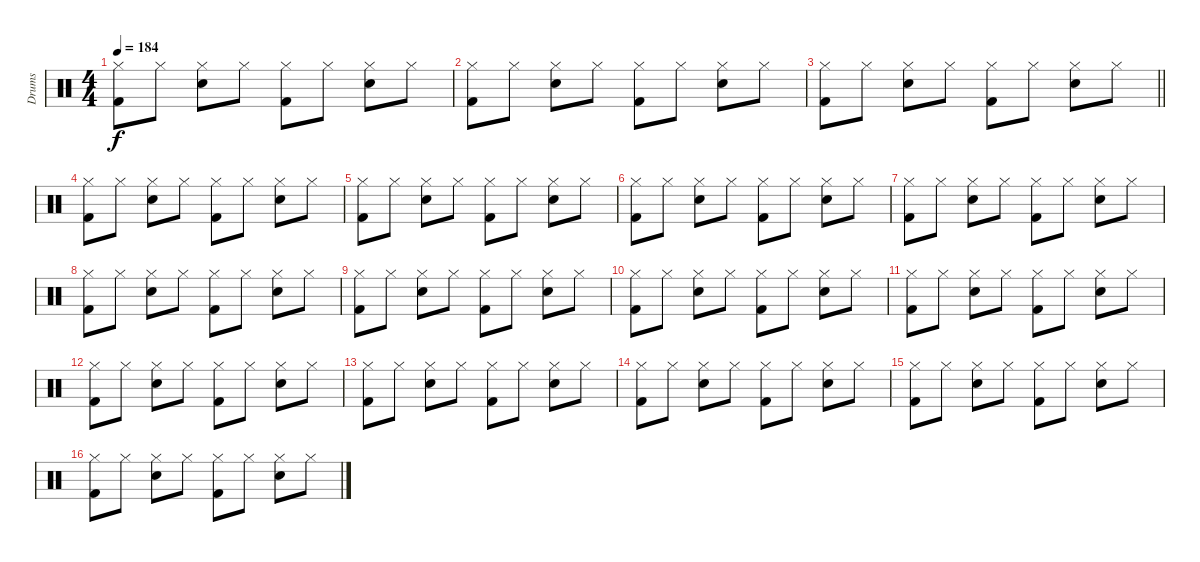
\track ("Drums" "Drums") {instrument percussion}
\staff {score}
\articulation defaults
\ts (4 4)
\tempo 184
\clef neutral
\ks c
("Hi-Hat (closed)" "Kick (hit) 2").8{dy f} "Hi-Hat (closed)".8 ("Hi-Hat (closed)" "Snare (hit) 2").8 "Hi-Hat (closed)".8 ("Hi-Hat (closed)" "Kick (hit) 2").8 "Hi-Hat (closed)".8 ("Hi-Hat (closed)" "Snare (hit) 2").8 "Hi-Hat (closed)".8 |
("Hi-Hat (closed)" "Kick (hit) 2").8 "Hi-Hat (closed)".8 ("Hi-Hat (closed)" "Snare (hit) 2").8 "Hi-Hat (closed)".8 ("Hi-Hat (closed)" "Kick (hit) 2").8 "Hi-Hat (closed)".8 ("Hi-Hat (closed)" "Snare (hit) 2").8 "Hi-Hat (closed)".8 |
\barLineRight lightlight
("Hi-Hat (closed)" "Kick (hit) 2").8 "Hi-Hat (closed)".8 ("Hi-Hat (closed)" "Snare (hit) 2").8 "Hi-Hat (closed)".8 ("Hi-Hat (closed)" "Kick (hit) 2").8 "Hi-Hat (closed)".8 ("Hi-Hat (closed)" "Snare (hit) 2").8 "Hi-Hat (closed)".8 |
("Hi-Hat (closed)" "Kick (hit) 2").8 "Hi-Hat (closed)".8 ("Hi-Hat (closed)" "Snare (hit) 2").8 "Hi-Hat (closed)".8 ("Hi-Hat (closed)" "Kick (hit) 2").8 "Hi-Hat (closed)".8 ("Hi-Hat (closed)" "Snare (hit) 2").8 "Hi-Hat (closed)".8 |
("Hi-Hat (closed)" "Kick (hit) 2").8 "Hi-Hat (closed)".8 ("Hi-Hat (closed)" "Snare (hit) 2").8 "Hi-Hat (closed)".8 ("Hi-Hat (closed)" "Kick (hit) 2").8 "Hi-Hat (closed)".8 ("Hi-Hat (closed)" "Snare (hit) 2").8 "Hi-Hat (closed)".8 |
("Hi-Hat (closed)" "Kick (hit) 2").8 "Hi-Hat (closed)".8 ("Hi-Hat (closed)" "Snare (hit) 2").8 "Hi-Hat (closed)".8 ("Hi-Hat (closed)" "Kick (hit) 2").8 "Hi-Hat (closed)".8 ("Hi-Hat (closed)" "Snare (hit) 2").8 "Hi-Hat (closed)".8 |
("Hi-Hat (closed)" "Kick (hit) 2").8 "Hi-Hat (closed)".8 ("Hi-Hat (closed)" "Snare (hit) 2").8 "Hi-Hat (closed)".8 ("Hi-Hat (closed)" "Kick (hit) 2").8 "Hi-Hat (closed)".8 ("Hi-Hat (closed)" "Snare (hit) 2").8 "Hi-Hat (closed)".8 |
("Hi-Hat (closed)" "Kick (hit) 2").8 "Hi-Hat (closed)".8 ("Hi-Hat (closed)" "Snare (hit) 2").8 "Hi-Hat (closed)".8 ("Hi-Hat (closed)" "Kick (hit) 2").8 "Hi-Hat (closed)".8 ("Hi-Hat (closed)" "Snare (hit) 2").8 "Hi-Hat (closed)".8 |
("Hi-Hat (closed)" "Kick (hit) 2").8 "Hi-Hat (closed)".8 ("Hi-Hat (closed)" "Snare (hit) 2").8 "Hi-Hat (closed)".8 ("Hi-Hat (closed)" "Kick (hit) 2").8 "Hi-Hat (closed)".8 ("Hi-Hat (closed)" "Snare (hit) 2").8 "Hi-Hat (closed)".8 |
("Hi-Hat (closed)" "Kick (hit) 2").8 "Hi-Hat (closed)".8 ("Hi-Hat (closed)" "Snare (hit) 2").8 "Hi-Hat (closed)".8 ("Hi-Hat (closed)" "Kick (hit) 2").8 "Hi-Hat (closed)".8 ("Hi-Hat (closed)" "Snare (hit) 2").8 "Hi-Hat (closed)".8 |
("Hi-Hat (closed)" "Kick (hit) 2").8 "Hi-Hat (closed)".8 ("Hi-Hat (closed)" "Snare (hit) 2").8 "Hi-Hat (closed)".8 ("Hi-Hat (closed)" "Kick (hit) 2").8 "Hi-Hat (closed)".8 ("Hi-Hat (closed)" "Snare (hit) 2").8 "Hi-Hat (closed)".8 |
("Hi-Hat (closed)" "Kick (hit) 2").8 "Hi-Hat (closed)".8 ("Hi-Hat (closed)" "Snare (hit) 2").8 "Hi-Hat (closed)".8 ("Hi-Hat (closed)" "Kick (hit) 2").8 "Hi-Hat (closed)".8 ("Hi-Hat (closed)" "Snare (hit) 2").8 "Hi-Hat (closed)".8 |
("Hi-Hat (closed)" "Kick (hit) 2").8 "Hi-Hat (closed)".8 ("Hi-Hat (closed)" "Snare (hit) 2").8 "Hi-Hat (closed)".8 ("Hi-Hat (closed)" "Kick (hit) 2").8 "Hi-Hat (closed)".8 ("Hi-Hat (closed)" "Snare (hit) 2").8 "Hi-Hat (closed)".8 |
("Hi-Hat (closed)" "Kick (hit) 2").8 "Hi-Hat (closed)".8 ("Hi-Hat (closed)" "Snare (hit) 2").8 "Hi-Hat (closed)".8 ("Hi-Hat (closed)" "Kick (hit) 2").8 "Hi-Hat (closed)".8 ("Hi-Hat (closed)" "Snare (hit) 2").8 "Hi-Hat (closed)".8 |
("Hi-Hat (closed)" "Kick (hit) 2").8 "Hi-Hat (closed)".8 ("Hi-Hat (closed)" "Snare (hit) 2").8 "Hi-Hat (closed)".8 ("Hi-Hat (closed)" "Kick (hit) 2").8 "Hi-Hat (closed)".8 ("Hi-Hat (closed)" "Snare (hit) 2").8 "Hi-Hat (closed)".8 |
("Hi-Hat (closed)" "Kick (hit) 2").8 "Hi-Hat (closed)".8 ("Hi-Hat (closed)" "Snare (hit) 2").8 "Hi-Hat (closed)".8 ("Hi-Hat (closed)" "Kick (hit) 2").8 "Hi-Hat (closed)".8 ("Hi-Hat (closed)" "Snare (hit) 2").8 "Hi-Hat (closed)".8
